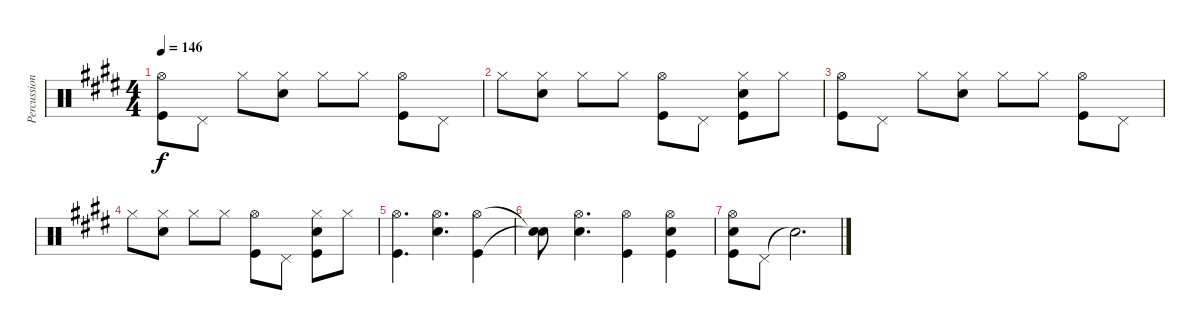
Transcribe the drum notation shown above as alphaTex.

\track ("Percussion" "Percussion") {instrument percussion}
\staff {score}
\articulation defaults
\ts (4 4)
\tempo 146
\clef neutral
\ks e
("Hi-Hat (open)" "Kick (hit)").8{dy f} "Pedal Hi-Hat (hit)".8 "Hi-Hat (closed)".8 ("Hi-Hat (closed)" "Electric Snare (hit)").8 "Hi-Hat (closed)".8 "Hi-Hat (closed)".8 ("Hi-Hat (open)" "Kick (hit)").8 "Pedal Hi-Hat (hit)".8 |
"Hi-Hat (closed)".8 ("Hi-Hat (closed)" "Electric Snare (hit)").8 "Hi-Hat (closed)".8 "Hi-Hat (closed)".8 ("Hi-Hat (open)" "Kick (hit)").8 "Pedal Hi-Hat (hit)".8 ("Hi-Hat (closed)" "Electric Snare (hit)" "Kick (hit)").8 "Hi-Hat (closed)".8 |
("Hi-Hat (open)" "Kick (hit)").8 "Pedal Hi-Hat (hit)".8 "Hi-Hat (closed)".8 ("Hi-Hat (closed)" "Electric Snare (hit)").8 "Hi-Hat (closed)".8 "Hi-Hat (closed)".8 ("Hi-Hat (open)" "Kick (hit)").8 "Pedal Hi-Hat (hit)".8 |
"Hi-Hat (closed)".8 ("Hi-Hat (closed)" "Electric Snare (hit)").8 "Hi-Hat (closed)".8 "Hi-Hat (closed)".8 ("Hi-Hat (open)" "Kick (hit)").8 "Pedal Hi-Hat (hit)".8 ("Hi-Hat (closed)" "Electric Snare (hit)" "Kick (hit)").8 "Hi-Hat (closed)".8 |
("Hi-Hat (open)" "Kick (hit)").4{d} ("Hi-Hat (open)" "Electric Snare (hit)").4{d} ("Hi-Hat (open)" "Kick (hit)").4 |
("Snare (hit)"{t} "Snare (hit)"{t}).8 ("Hi-Hat (open)" "Electric Snare (hit)").4{d} ("Hi-Hat (open)" "Kick (hit)").4 ("Hi-Hat (open)" "Electric Snare (hit)" "Kick (hit)").4 |
("Hi-Hat (open)" "Electric Snare (hit)" "Kick (hit)").8 "Pedal Hi-Hat (hit)".8 "Snare (hit)"{t}.2{d}
